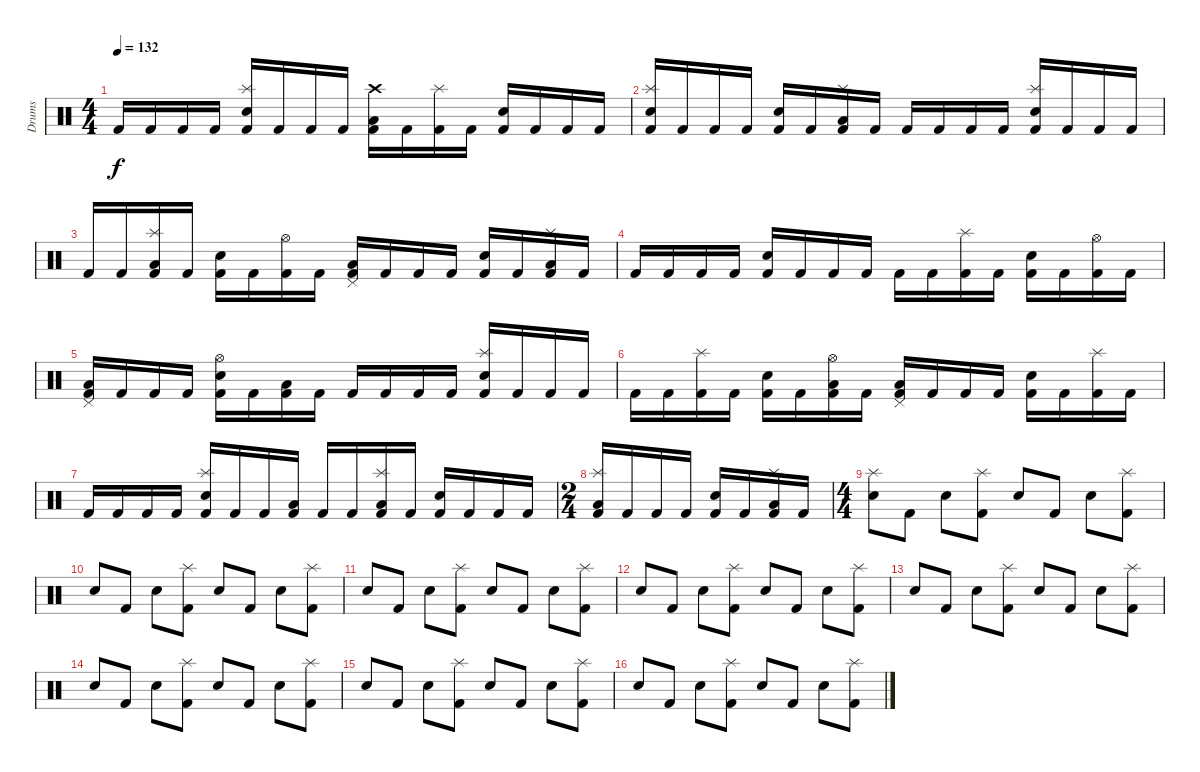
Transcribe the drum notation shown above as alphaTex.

\track ("Drums" "Drums") {instrument percussion}
\staff {score}
\articulation defaults
\ts (4 4)
\tempo 132
\clef neutral
\ks c "Kick (hit) 2".16{dy f} "Kick (hit) 2".16 "Kick (hit) 2".16 "Kick (hit) 2".16
("Kick (hit) 2" "Splash (hit)" "Electric Snare (hit)").16 "Kick (hit) 2".16 "Kick (hit) 2".16 "Kick (hit) 2".16 ("Kick (hit) 2" "Crash high (hit)" "Low Tom (hit)").16 "Kick (hit) 2".16 ("Kick (hit) 2" "Splash (hit)").16 "Kick (hit) 2".16 ("Kick (hit) 2" "Electric Snare (hit)").16 "Kick (hit) 2".16 "Kick (hit) 2".16 "Kick (hit) 2".16 |
("Kick (hit) 2" "Electric Snare (hit)" "Splash (hit)").16 "Kick (hit) 2".16 "Kick (hit) 2".16 "Kick (hit) 2".16 ("Kick (hit) 2" "Electric Snare (hit)").16 "Kick (hit) 2".16 ("Kick (hit) 2" "Low Tom (hit)" "Splash (hit)").16 "Kick (hit) 2".16 "Kick (hit) 2".16 "Kick (hit) 2".16 "Kick (hit) 2".16 "Kick (hit) 2".16 ("Kick (hit) 2" "Electric Snare (hit)" "Splash (hit)").16 "Kick (hit) 2".16 "Kick (hit) 2".16 "Kick (hit) 2".16 |
"Kick (hit) 2".16 "Kick (hit) 2".16 ("Kick (hit) 2" "Low Tom (hit)" "Splash (hit)").16 "Kick (hit) 2".16 ("Kick (hit) 2" "Electric Snare (hit)").16 "Kick (hit) 2".16 ("Kick (hit) 2" "Hi-Hat (open)").16 "Kick (hit) 2".16 ("Kick (hit) 2" "Low Tom (hit)" "Pedal Hi-Hat (hit)").16 "Kick (hit) 2".16 "Kick (hit) 2".16 "Kick (hit) 2".16 ("Kick (hit) 2" "Electric Snare (hit)").16 "Kick (hit) 2".16 ("Kick (hit) 2" "Low Tom (hit)" "Splash (hit)").16 "Kick (hit) 2".16 |
"Kick (hit) 2".16 "Kick (hit) 2".16 "Kick (hit) 2".16 "Kick (hit) 2".16 ("Kick (hit) 2" "Electric Snare (hit)").16 "Kick (hit) 2".16 "Kick (hit) 2".16 "Kick (hit) 2".16 "Kick (hit) 2".16 "Kick (hit) 2".16 ("Kick (hit) 2" "Splash (hit)").16 "Kick (hit) 2".16 ("Kick (hit) 2" "Electric Snare (hit)").16 "Kick (hit) 2".16 ("Kick (hit) 2" "Hi-Hat (open)").16 "Kick (hit) 2".16 |
("Kick (hit) 2" "Low Tom (hit)" "Pedal Hi-Hat (hit)").16 "Kick (hit) 2".16 "Kick (hit) 2".16 "Kick (hit) 2".16 ("Kick (hit) 2" "Hi-Hat (open)" "Electric Snare (hit)").16 "Kick (hit) 2".16 ("Kick (hit) 2" "Low Tom (hit)").16 "Kick (hit) 2".16 "Kick (hit) 2".16 "Kick (hit) 2".16 "Kick (hit) 2".16 "Kick (hit) 2".16 ("Kick (hit) 2" "Electric Snare (hit)" "Splash (hit)").16 "Kick (hit) 2".16 "Kick (hit) 2".16 "Kick (hit) 2".16 |
"Kick (hit) 2".16 "Kick (hit) 2".16 ("Kick (hit) 2" "Splash (hit)").16 "Kick (hit) 2".16 ("Kick (hit) 2" "Electric Snare (hit)").16 "Kick (hit) 2".16 ("Kick (hit) 2" "Hi-Hat (open)" "Low Tom (hit)").16 "Kick (hit) 2".16 ("Kick (hit) 2" "Pedal Hi-Hat (hit)" "Low Tom (hit)").16 "Kick (hit) 2".16 "Kick (hit) 2".16 "Kick (hit) 2".16 ("Kick (hit) 2" "Electric Snare (hit)").16 "Kick (hit) 2".16 ("Kick (hit) 2" "Splash (hit)").16 "Kick (hit) 2".16 |
"Kick (hit) 2".16 "Kick (hit) 2".16 "Kick (hit) 2".16 "Kick (hit) 2".16 ("Kick (hit) 2" "Electric Snare (hit)" "Splash (hit)").16 "Kick (hit) 2".16 "Kick (hit) 2".16 ("Kick (hit) 2" "Low Tom (hit)").16 "Kick (hit) 2".16 "Kick (hit) 2".16 ("Kick (hit) 2" "Splash (hit)" "Low Tom (hit)").16 "Kick (hit) 2".16 ("Kick (hit) 2" "Electric Snare (hit)").16 "Kick (hit) 2".16 "Kick (hit) 2".16 "Kick (hit) 2".16 |
\ts (2 4)
("Kick (hit) 2" "Low Tom (hit)" "Splash (hit)").16 "Kick (hit) 2".16 "Kick (hit) 2".16 "Kick (hit) 2".16 ("Kick (hit) 2" "Electric Snare (hit)").16 "Kick (hit) 2".16 ("Kick (hit) 2" "Low Tom (hit)" "Splash (hit)").16 "Kick (hit) 2".16 |
\ts (4 4)
("Electric Snare (hit)" "Splash (hit)").8 "Kick (hit) 2".8 "Electric Snare (hit)".8 ("Kick (hit) 2" "Splash (hit)").8 "Electric Snare (hit)".8 "Kick (hit) 2".8 "Electric Snare (hit)".8 ("Kick (hit) 2" "Splash (hit)").8 |
"Electric Snare (hit)".8 "Kick (hit) 2".8 "Electric Snare (hit)".8 ("Kick (hit) 2" "Splash (hit)").8 "Electric Snare (hit)".8 "Kick (hit) 2".8 "Electric Snare (hit)".8 ("Kick (hit) 2" "Splash (hit)").8 |
"Electric Snare (hit)".8 "Kick (hit) 2".8 "Electric Snare (hit)".8 ("Kick (hit) 2" "Splash (hit)").8 "Electric Snare (hit)".8 "Kick (hit) 2".8 "Electric Snare (hit)".8 ("Kick (hit) 2" "Splash (hit)").8 |
"Electric Snare (hit)".8 "Kick (hit) 2".8 "Electric Snare (hit)".8 ("Kick (hit) 2" "Splash (hit)").8 "Electric Snare (hit)".8 "Kick (hit) 2".8 "Electric Snare (hit)".8 ("Kick (hit) 2" "Splash (hit)").8 |
"Electric Snare (hit)".8 "Kick (hit) 2".8 "Electric Snare (hit)".8 ("Kick (hit) 2" "Splash (hit)").8 "Electric Snare (hit)".8 "Kick (hit) 2".8 "Electric Snare (hit)".8 ("Kick (hit) 2" "Splash (hit)").8 |
"Electric Snare (hit)".8 "Kick (hit) 2".8 "Electric Snare (hit)".8 ("Kick (hit) 2" "Splash (hit)").8 "Electric Snare (hit)".8 "Kick (hit) 2".8 "Electric Snare (hit)".8 ("Kick (hit) 2" "Splash (hit)").8 |
"Electric Snare (hit)".8 "Kick (hit) 2".8 "Electric Snare (hit)".8 ("Kick (hit) 2" "Splash (hit)").8 "Electric Snare (hit)".8 "Kick (hit) 2".8 "Electric Snare (hit)".8 ("Kick (hit) 2" "Splash (hit)").8 |
"Electric Snare (hit)".8 "Kick (hit) 2".8 "Electric Snare (hit)".8 ("Kick (hit) 2" "Splash (hit)").8 "Electric Snare (hit)".8 "Kick (hit) 2".8 "Electric Snare (hit)".8 ("Kick (hit) 2" "Splash (hit)").8
